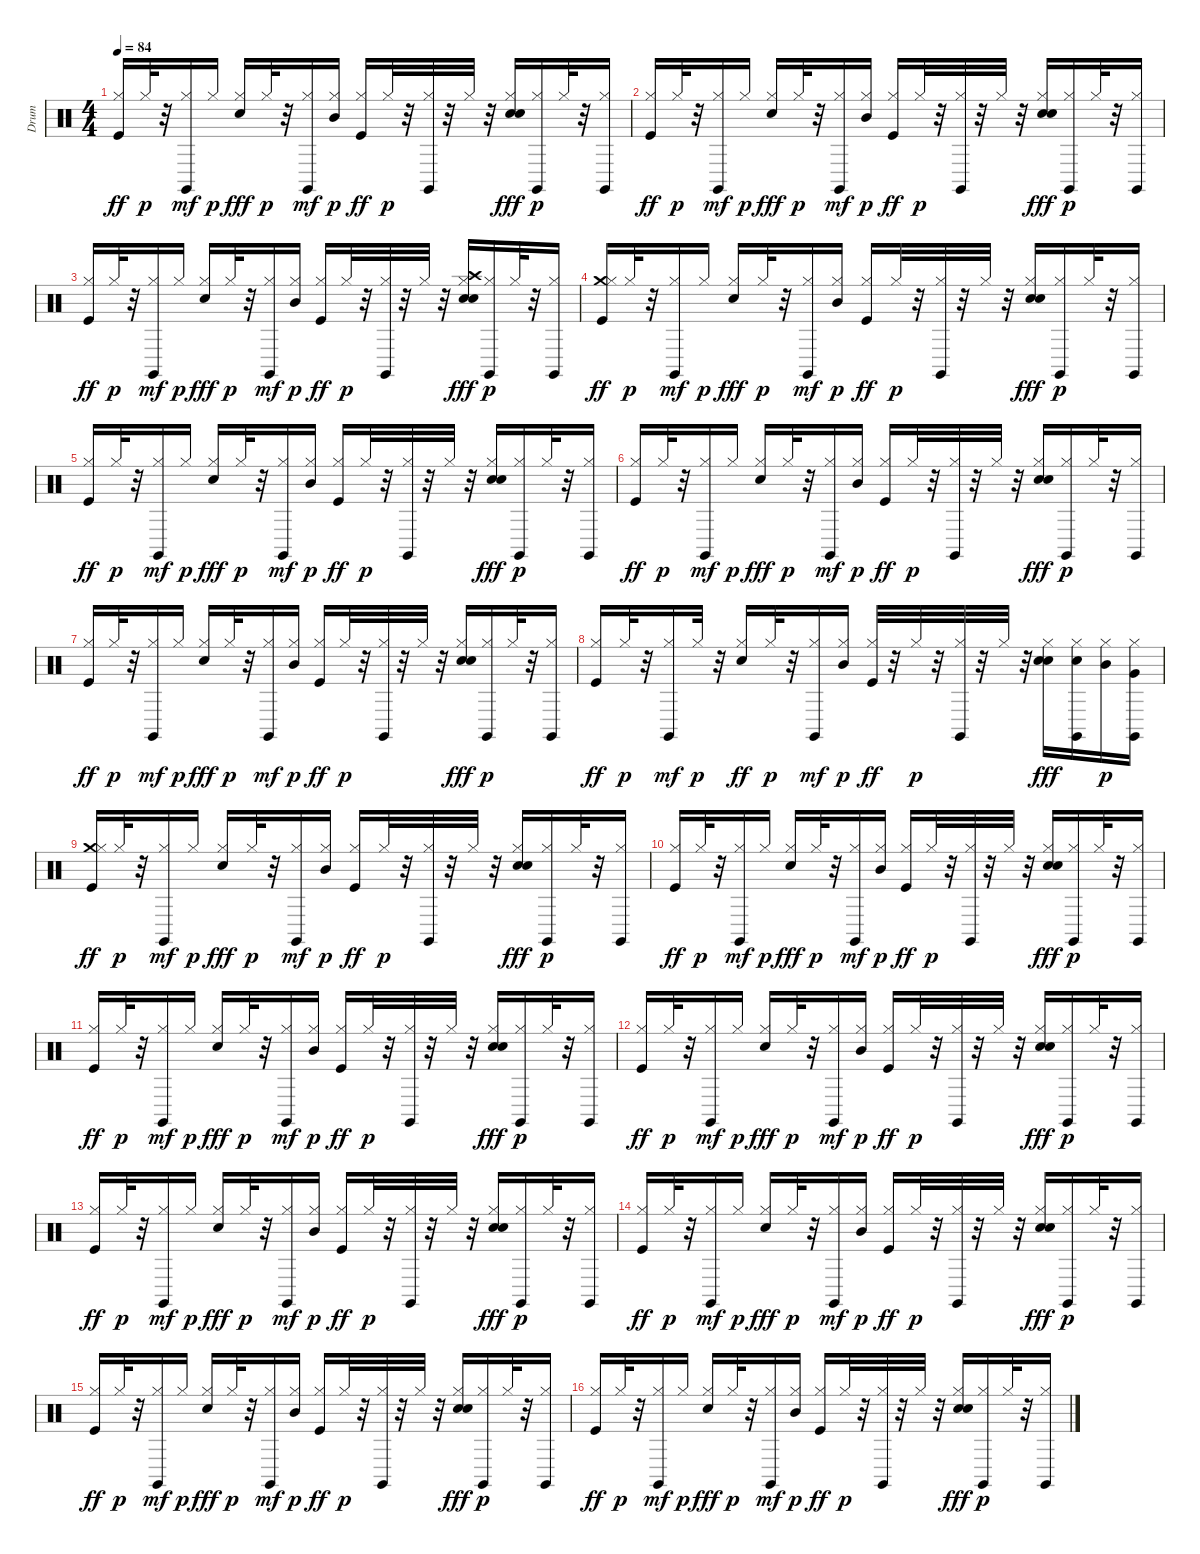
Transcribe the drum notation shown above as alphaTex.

\track ("Drum" "Drum") {instrument percussion}
\staff {score}
\articulation defaults
\ts (4 4)
\tempo 84
\clef neutral
\ks c
("Kick (hit)" "Hi-Hat (closed)").16{dy ff} "Hi-Hat (closed)".32{dy p} r.32 ("Hi-Hat (closed)" "Claves (hit)").16{dy mf} "Hi-Hat (closed)".16{dy p} ("Hi-Hat (closed)" "Snare (hit) 2").16{dy fff} "Hi-Hat (closed)".32{dy p} r.32 ("Hi-Hat (closed)" "Claves (hit)").16{dy mf} ("Hi-Hat (closed)" "Mid Tom (hit)").16{dy p} ("Kick (hit)" "Hi-Hat (closed)").16{dy ff} "Hi-Hat (closed)".32{dy p} r.32 ("Hi-Hat (closed)" "Claves (hit)").32 r.32 "Hi-Hat (closed)".32 r.32 ("Hi-Hat (closed)" "Snare (hit) 2" "Hand Clap (hit)").16{dy fff} ("Hi-Hat (closed)" "Claves (hit)").16{dy p} "Hi-Hat (closed)".32 r.32 ("Hi-Hat (closed)" "Claves (hit)").16 |
("Kick (hit)" "Hi-Hat (closed)").16{dy ff} "Hi-Hat (closed)".32{dy p} r.32 ("Hi-Hat (closed)" "Claves (hit)").16{dy mf} "Hi-Hat (closed)".16{dy p} ("Hi-Hat (closed)" "Snare (hit) 2").16{dy fff} "Hi-Hat (closed)".32{dy p} r.32 ("Hi-Hat (closed)" "Claves (hit)").16{dy mf} ("Hi-Hat (closed)" "Mid Tom (hit)").16{dy p} ("Kick (hit)" "Hi-Hat (closed)").16{dy ff} "Hi-Hat (closed)".32{dy p} r.32 ("Hi-Hat (closed)" "Claves (hit)").32 r.32 "Hi-Hat (closed)".32 r.32 ("Hi-Hat (closed)" "Snare (hit) 2" "Hand Clap (hit)").16{dy fff} ("Hi-Hat (closed)" "Claves (hit)").16{dy p} "Hi-Hat (closed)".32 r.32 ("Hi-Hat (closed)" "Claves (hit)").16 |
("Kick (hit)" "Hi-Hat (closed)").16{dy ff} "Hi-Hat (closed)".32{dy p} r.32 ("Hi-Hat (closed)" "Claves (hit)").16{dy mf} "Hi-Hat (closed)".16{dy p} ("Hi-Hat (closed)" "Snare (hit) 2").16{dy fff} "Hi-Hat (closed)".32{dy p} r.32 ("Hi-Hat (closed)" "Claves (hit)").16{dy mf} ("Hi-Hat (closed)" "Mid Tom (hit)").16{dy p} ("Kick (hit)" "Hi-Hat (closed)").16{dy ff} "Hi-Hat (closed)".32{dy p} r.32 ("Hi-Hat (closed)" "Claves (hit)").32 r.32 "Hi-Hat (closed)".32 r.32 ("Crash high (hit)" "Hi-Hat (closed)" "Snare (hit) 2" "Hand Clap (hit)").16{dy fff} ("Hi-Hat (closed)" "Claves (hit)").16{dy p} "Hi-Hat (closed)".32 r.32 ("Hi-Hat (closed)" "Claves (hit)").16 |
("Crash medium (hit)" "Kick (hit)" "Hi-Hat (closed)").16{dy ff} "Hi-Hat (closed)".32{dy p} r.32 ("Hi-Hat (closed)" "Claves (hit)").16{dy mf} "Hi-Hat (closed)".16{dy p} ("Hi-Hat (closed)" "Snare (hit) 2").16{dy fff} "Hi-Hat (closed)".32{dy p} r.32 ("Hi-Hat (closed)" "Claves (hit)").16{dy mf} ("Hi-Hat (closed)" "Mid Tom (hit)").16{dy p} ("Kick (hit)" "Hi-Hat (closed)").16{dy ff} "Hi-Hat (closed)".32{dy p} r.32 ("Hi-Hat (closed)" "Claves (hit)").32 r.32 "Hi-Hat (closed)".32 r.32 ("Hi-Hat (closed)" "Snare (hit) 2" "Hand Clap (hit)").16{dy fff} ("Hi-Hat (closed)" "Claves (hit)").16{dy p} "Hi-Hat (closed)".32 r.32 ("Hi-Hat (closed)" "Claves (hit)").16 |
("Kick (hit)" "Hi-Hat (closed)").16{dy ff} "Hi-Hat (closed)".32{dy p} r.32 ("Hi-Hat (closed)" "Claves (hit)").16{dy mf} "Hi-Hat (closed)".16{dy p} ("Hi-Hat (closed)" "Snare (hit) 2").16{dy fff} "Hi-Hat (closed)".32{dy p} r.32 ("Hi-Hat (closed)" "Claves (hit)").16{dy mf} ("Hi-Hat (closed)" "Mid Tom (hit)").16{dy p} ("Kick (hit)" "Hi-Hat (closed)").16{dy ff} "Hi-Hat (closed)".32{dy p} r.32 ("Hi-Hat (closed)" "Claves (hit)").32 r.32 "Hi-Hat (closed)".32 r.32 ("Hi-Hat (closed)" "Snare (hit) 2" "Hand Clap (hit)").16{dy fff} ("Hi-Hat (closed)" "Claves (hit)").16{dy p} "Hi-Hat (closed)".32 r.32 ("Hi-Hat (closed)" "Claves (hit)").16 |
("Kick (hit)" "Hi-Hat (closed)").16{dy ff} "Hi-Hat (closed)".32{dy p} r.32 ("Hi-Hat (closed)" "Claves (hit)").16{dy mf} "Hi-Hat (closed)".16{dy p} ("Hi-Hat (closed)" "Snare (hit) 2").16{dy fff} "Hi-Hat (closed)".32{dy p} r.32 ("Hi-Hat (closed)" "Claves (hit)").16{dy mf} ("Hi-Hat (closed)" "Mid Tom (hit)").16{dy p} ("Kick (hit)" "Hi-Hat (closed)").16{dy ff} "Hi-Hat (closed)".32{dy p} r.32 ("Hi-Hat (closed)" "Claves (hit)").32 r.32 "Hi-Hat (closed)".32 r.32 ("Hi-Hat (closed)" "Snare (hit) 2" "Hand Clap (hit)").16{dy fff} ("Hi-Hat (closed)" "Claves (hit)").16{dy p} "Hi-Hat (closed)".32 r.32 ("Hi-Hat (closed)" "Claves (hit)").16 |
("Kick (hit)" "Hi-Hat (closed)").16{dy ff} "Hi-Hat (closed)".32{dy p} r.32 ("Hi-Hat (closed)" "Claves (hit)").16{dy mf} "Hi-Hat (closed)".16{dy p} ("Hi-Hat (closed)" "Snare (hit) 2").16{dy fff} "Hi-Hat (closed)".32{dy p} r.32 ("Hi-Hat (closed)" "Claves (hit)").16{dy mf} ("Hi-Hat (closed)" "Mid Tom (hit)").16{dy p} ("Kick (hit)" "Hi-Hat (closed)").16{dy ff} "Hi-Hat (closed)".32{dy p} r.32 ("Hi-Hat (closed)" "Claves (hit)").32 r.32 "Hi-Hat (closed)".32 r.32 ("Hi-Hat (closed)" "Snare (hit) 2" "Hand Clap (hit)").16{dy fff} ("Hi-Hat (closed)" "Claves (hit)").16{dy p} "Hi-Hat (closed)".32 r.32 ("Hi-Hat (closed)" "Claves (hit)").16 |
("Kick (hit)" "Hi-Hat (closed)").16{dy ff} "Hi-Hat (closed)".32{dy p} r.32 ("Hi-Hat (closed)" "Claves (hit)").16{dy mf} "Hi-Hat (closed)".32{dy p} r.32 ("Snare (hit) 2" "Hi-Hat (closed)").16{dy ff} "Hi-Hat (closed)".32{dy p} r.32 ("Hi-Hat (closed)" "Claves (hit)").16{dy mf} ("Hi-Hat (closed)" "Mid Tom (hit)").16{dy p} ("Kick (hit)" "Hi-Hat (closed)").32{dy ff} r.32 "Hi-Hat (closed)".32{dy p} r.32 ("Hi-Hat (closed)" "Claves (hit)").32 r.32 "Hi-Hat (closed)".32 r.32 ("Hi-Hat (closed)" "Snare (hit) 2" "Hand Clap (hit)").16{dy fff} ("Hi-Hat (closed)" "Claves (hit)" "Snare (hit) 2").16 ("Hi-Hat (closed)" "Mid Tom (hit)").16{dy p} ("Hi-Hat (closed)" "Claves (hit)" "Very Low Tom (hit)").16 |
("Crash medium (hit)" "Kick (hit)" "Hi-Hat (closed)").16{dy ff} "Hi-Hat (closed)".32{dy p} r.32 ("Hi-Hat (closed)" "Claves (hit)").16{dy mf} "Hi-Hat (closed)".16{dy p} ("Hi-Hat (closed)" "Snare (hit) 2").16{dy fff} "Hi-Hat (closed)".32{dy p} r.32 ("Hi-Hat (closed)" "Claves (hit)").16{dy mf} ("Hi-Hat (closed)" "Mid Tom (hit)").16{dy p} ("Kick (hit)" "Hi-Hat (closed)").16{dy ff} "Hi-Hat (closed)".32{dy p} r.32 ("Hi-Hat (closed)" "Claves (hit)").32 r.32 "Hi-Hat (closed)".32 r.32 ("Hi-Hat (closed)" "Snare (hit) 2" "Hand Clap (hit)").16{dy fff} ("Hi-Hat (closed)" "Claves (hit)").16{dy p} "Hi-Hat (closed)".32 r.32 ("Hi-Hat (closed)" "Claves (hit)").16 |
("Kick (hit)" "Hi-Hat (closed)").16{dy ff} "Hi-Hat (closed)".32{dy p} r.32 ("Hi-Hat (closed)" "Claves (hit)").16{dy mf} "Hi-Hat (closed)".16{dy p} ("Hi-Hat (closed)" "Snare (hit) 2").16{dy fff} "Hi-Hat (closed)".32{dy p} r.32 ("Hi-Hat (closed)" "Claves (hit)").16{dy mf} ("Hi-Hat (closed)" "Mid Tom (hit)").16{dy p} ("Kick (hit)" "Hi-Hat (closed)").16{dy ff} "Hi-Hat (closed)".32{dy p} r.32 ("Hi-Hat (closed)" "Claves (hit)").32 r.32 "Hi-Hat (closed)".32 r.32 ("Hi-Hat (closed)" "Snare (hit) 2" "Hand Clap (hit)").16{dy fff} ("Hi-Hat (closed)" "Claves (hit)").16{dy p} "Hi-Hat (closed)".32 r.32 ("Hi-Hat (closed)" "Claves (hit)").16 |
("Kick (hit)" "Hi-Hat (closed)").16{dy ff} "Hi-Hat (closed)".32{dy p} r.32 ("Hi-Hat (closed)" "Claves (hit)").16{dy mf} "Hi-Hat (closed)".16{dy p} ("Hi-Hat (closed)" "Snare (hit) 2").16{dy fff} "Hi-Hat (closed)".32{dy p} r.32 ("Hi-Hat (closed)" "Claves (hit)").16{dy mf} ("Hi-Hat (closed)" "Mid Tom (hit)").16{dy p} ("Kick (hit)" "Hi-Hat (closed)").16{dy ff} "Hi-Hat (closed)".32{dy p} r.32 ("Hi-Hat (closed)" "Claves (hit)").32 r.32 "Hi-Hat (closed)".32 r.32 ("Hi-Hat (closed)" "Snare (hit) 2" "Hand Clap (hit)").16{dy fff} ("Hi-Hat (closed)" "Claves (hit)").16{dy p} "Hi-Hat (closed)".32 r.32 ("Hi-Hat (closed)" "Claves (hit)").16 |
("Kick (hit)" "Hi-Hat (closed)").16{dy ff} "Hi-Hat (closed)".32{dy p} r.32 ("Hi-Hat (closed)" "Claves (hit)").16{dy mf} "Hi-Hat (closed)".16{dy p} ("Hi-Hat (closed)" "Snare (hit) 2").16{dy fff} "Hi-Hat (closed)".32{dy p} r.32 ("Hi-Hat (closed)" "Claves (hit)").16{dy mf} ("Hi-Hat (closed)" "Mid Tom (hit)").16{dy p} ("Kick (hit)" "Hi-Hat (closed)").16{dy ff} "Hi-Hat (closed)".32{dy p} r.32 ("Hi-Hat (closed)" "Claves (hit)").32 r.32 "Hi-Hat (closed)".32 r.32 ("Hi-Hat (closed)" "Snare (hit) 2" "Hand Clap (hit)").16{dy fff} ("Hi-Hat (closed)" "Claves (hit)").16{dy p} "Hi-Hat (closed)".32 r.32 ("Hi-Hat (closed)" "Claves (hit)").16 |
("Kick (hit)" "Hi-Hat (closed)").16{dy ff} "Hi-Hat (closed)".32{dy p} r.32 ("Hi-Hat (closed)" "Claves (hit)").16{dy mf} "Hi-Hat (closed)".16{dy p} ("Hi-Hat (closed)" "Snare (hit) 2").16{dy fff} "Hi-Hat (closed)".32{dy p} r.32 ("Hi-Hat (closed)" "Claves (hit)").16{dy mf} ("Hi-Hat (closed)" "Mid Tom (hit)").16{dy p} ("Kick (hit)" "Hi-Hat (closed)").16{dy ff} "Hi-Hat (closed)".32{dy p} r.32 ("Hi-Hat (closed)" "Claves (hit)").32 r.32 "Hi-Hat (closed)".32 r.32 ("Hi-Hat (closed)" "Snare (hit) 2" "Hand Clap (hit)").16{dy fff} ("Hi-Hat (closed)" "Claves (hit)").16{dy p} "Hi-Hat (closed)".32 r.32 ("Hi-Hat (closed)" "Claves (hit)").16 |
("Kick (hit)" "Hi-Hat (closed)").16{dy ff} "Hi-Hat (closed)".32{dy p} r.32 ("Hi-Hat (closed)" "Claves (hit)").16{dy mf} "Hi-Hat (closed)".16{dy p} ("Hi-Hat (closed)" "Snare (hit) 2").16{dy fff} "Hi-Hat (closed)".32{dy p} r.32 ("Hi-Hat (closed)" "Claves (hit)").16{dy mf} ("Hi-Hat (closed)" "Mid Tom (hit)").16{dy p} ("Kick (hit)" "Hi-Hat (closed)").16{dy ff} "Hi-Hat (closed)".32{dy p} r.32 ("Hi-Hat (closed)" "Claves (hit)").32 r.32 "Hi-Hat (closed)".32 r.32 ("Hi-Hat (closed)" "Snare (hit) 2" "Hand Clap (hit)").16{dy fff} ("Hi-Hat (closed)" "Claves (hit)").16{dy p} "Hi-Hat (closed)".32 r.32 ("Hi-Hat (closed)" "Claves (hit)").16 |
("Kick (hit)" "Hi-Hat (closed)").16{dy ff} "Hi-Hat (closed)".32{dy p} r.32 ("Hi-Hat (closed)" "Claves (hit)").16{dy mf} "Hi-Hat (closed)".16{dy p} ("Hi-Hat (closed)" "Snare (hit) 2").16{dy fff} "Hi-Hat (closed)".32{dy p} r.32 ("Hi-Hat (closed)" "Claves (hit)").16{dy mf} ("Hi-Hat (closed)" "Mid Tom (hit)").16{dy p} ("Kick (hit)" "Hi-Hat (closed)").16{dy ff} "Hi-Hat (closed)".32{dy p} r.32 ("Hi-Hat (closed)" "Claves (hit)").32 r.32 "Hi-Hat (closed)".32 r.32 ("Hi-Hat (closed)" "Snare (hit) 2" "Hand Clap (hit)").16{dy fff} ("Hi-Hat (closed)" "Claves (hit)").16{dy p} "Hi-Hat (closed)".32 r.32 ("Hi-Hat (closed)" "Claves (hit)").16 |
("Kick (hit)" "Hi-Hat (closed)").16{dy ff} "Hi-Hat (closed)".32{dy p} r.32 ("Hi-Hat (closed)" "Claves (hit)").16{dy mf} "Hi-Hat (closed)".16{dy p} ("Hi-Hat (closed)" "Snare (hit) 2").16{dy fff} "Hi-Hat (closed)".32{dy p} r.32 ("Hi-Hat (closed)" "Claves (hit)").16{dy mf} ("Hi-Hat (closed)" "Mid Tom (hit)").16{dy p} ("Kick (hit)" "Hi-Hat (closed)").16{dy ff} "Hi-Hat (closed)".32{dy p} r.32 ("Hi-Hat (closed)" "Claves (hit)").32 r.32 "Hi-Hat (closed)".32 r.32 ("Hi-Hat (closed)" "Snare (hit) 2" "Hand Clap (hit)").16{dy fff} ("Hi-Hat (closed)" "Claves (hit)").16{dy p} "Hi-Hat (closed)".32 r.32 ("Hi-Hat (closed)" "Claves (hit)").16
